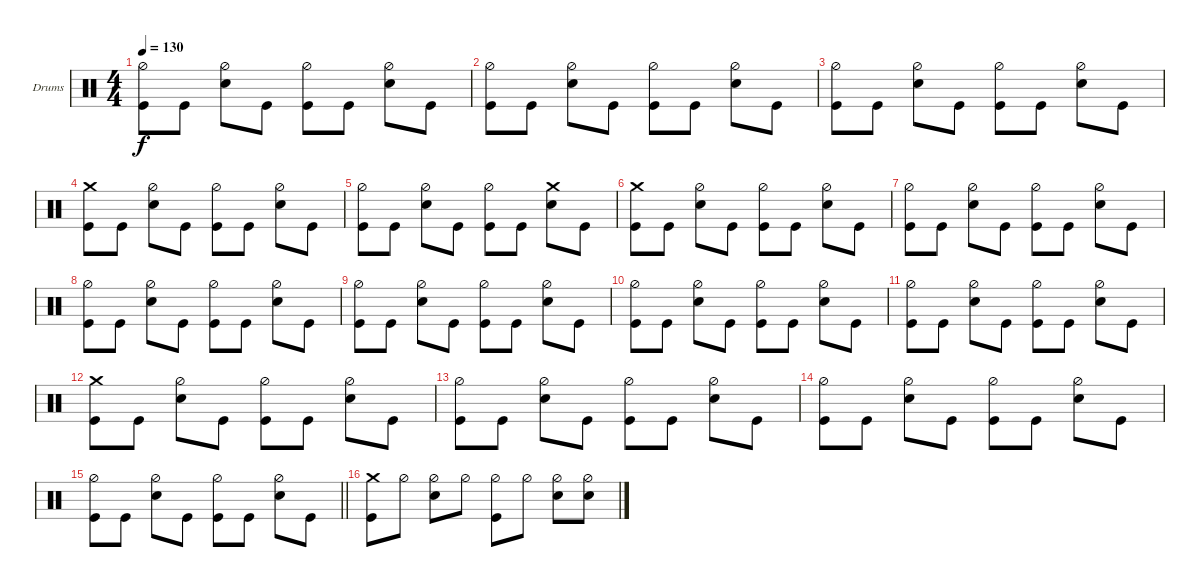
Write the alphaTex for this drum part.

\defaultSystemsLayout 4
\bracketExtendMode groupsimilarinstruments
\firstSystemTrackNameOrientation horizontal
\otherSystemsTrackNameOrientation horizontal
\track ("Drumkit" "Drums") {instrument percussion}
\staff {score}
\articulation defaults
\ts (4 4)
\tempo 130
\clef neutral
\ks aminor
("Kick (hit)" "Hi-Hat (half)").8{dy f} "Kick (hit)".8 ("Snare (hit) 2" "Hi-Hat (half)").8 "Kick (hit)".8 ("Kick (hit)" "Hi-Hat (half)").8 "Kick (hit)".8 ("Snare (hit) 2" "Hi-Hat (half)").8 "Kick (hit)".8 |
("Kick (hit)" "Hi-Hat (half)").8 "Kick (hit)".8 ("Snare (hit) 2" "Hi-Hat (half)").8 "Kick (hit)".8 ("Kick (hit)" "Hi-Hat (half)").8 "Kick (hit)".8 ("Snare (hit) 2" "Hi-Hat (half)").8 "Kick (hit)".8 |
("Kick (hit)" "Hi-Hat (half)").8 "Kick (hit)".8 ("Snare (hit) 2" "Hi-Hat (half)").8 "Kick (hit)".8 ("Kick (hit)" "Hi-Hat (half)").8 "Kick (hit)".8 ("Snare (hit) 2" "Hi-Hat (half)").8 "Kick (hit)".8 |
("Kick (hit)" "Crash medium (hit)").8 "Kick (hit)".8 ("Snare (hit) 2" "Hi-Hat (half)").8 "Kick (hit)".8 ("Kick (hit)" "Hi-Hat (half)").8 "Kick (hit)".8 ("Snare (hit) 2" "Hi-Hat (half)").8 "Kick (hit)".8 |
("Kick (hit)" "Hi-Hat (half)").8 "Kick (hit)".8 ("Snare (hit) 2" "Hi-Hat (half)").8 "Kick (hit)".8 ("Kick (hit)" "Hi-Hat (half)").8 "Kick (hit)".8 ("Snare (hit) 2" "Crash medium (hit)").8 "Kick (hit)".8 |
("Kick (hit)" "Crash medium (hit)").8 "Kick (hit)".8 ("Snare (hit) 2" "Hi-Hat (half)").8 "Kick (hit)".8 ("Kick (hit)" "Hi-Hat (half)").8 "Kick (hit)".8 ("Snare (hit) 2" "Hi-Hat (half)").8 "Kick (hit)".8 |
("Kick (hit)" "Hi-Hat (half)").8 "Kick (hit)".8 ("Snare (hit) 2" "Hi-Hat (half)").8 "Kick (hit)".8 ("Kick (hit)" "Hi-Hat (half)").8 "Kick (hit)".8 ("Snare (hit) 2" "Hi-Hat (half)").8 "Kick (hit)".8 |
("Kick (hit)" "Hi-Hat (half)").8 "Kick (hit)".8 ("Snare (hit) 2" "Hi-Hat (half)").8 "Kick (hit)".8 ("Kick (hit)" "Hi-Hat (half)").8 "Kick (hit)".8 ("Snare (hit) 2" "Hi-Hat (half)").8 "Kick (hit)".8 |
("Kick (hit)" "Hi-Hat (half)").8 "Kick (hit)".8 ("Snare (hit) 2" "Hi-Hat (half)").8 "Kick (hit)".8 ("Kick (hit)" "Hi-Hat (half)").8 "Kick (hit)".8 ("Snare (hit) 2" "Hi-Hat (half)").8 "Kick (hit)".8 |
("Kick (hit)" "Hi-Hat (half)").8 "Kick (hit)".8 ("Snare (hit) 2" "Hi-Hat (half)").8 "Kick (hit)".8 ("Kick (hit)" "Hi-Hat (half)").8 "Kick (hit)".8 ("Snare (hit) 2" "Hi-Hat (half)").8 "Kick (hit)".8 |
("Kick (hit)" "Hi-Hat (half)").8 "Kick (hit)".8 ("Snare (hit) 2" "Hi-Hat (half)").8 "Kick (hit)".8 ("Kick (hit)" "Hi-Hat (half)").8 "Kick (hit)".8 ("Snare (hit) 2" "Hi-Hat (half)").8 "Kick (hit)".8 |
("Kick (hit)" "Crash medium (hit)").8 "Kick (hit)".8 ("Snare (hit) 2" "Hi-Hat (half)").8 "Kick (hit)".8 ("Kick (hit)" "Hi-Hat (half)").8 "Kick (hit)".8 ("Snare (hit) 2" "Hi-Hat (half)").8 "Kick (hit)".8 |
("Kick (hit)" "Hi-Hat (half)").8 "Kick (hit)".8 ("Snare (hit) 2" "Hi-Hat (half)").8 "Kick (hit)".8 ("Kick (hit)" "Hi-Hat (half)").8 "Kick (hit)".8 ("Snare (hit) 2" "Hi-Hat (half)").8 "Kick (hit)".8 |
("Kick (hit)" "Hi-Hat (half)").8 "Kick (hit)".8 ("Snare (hit) 2" "Hi-Hat (half)").8 "Kick (hit)".8 ("Kick (hit)" "Hi-Hat (half)").8 "Kick (hit)".8 ("Snare (hit) 2" "Hi-Hat (half)").8 "Kick (hit)".8 |
\barLineRight lightlight
("Kick (hit)" "Hi-Hat (half)").8 "Kick (hit)".8 ("Snare (hit) 2" "Hi-Hat (half)").8 "Kick (hit)".8 ("Kick (hit)" "Hi-Hat (half)").8 "Kick (hit)".8 ("Snare (hit) 2" "Hi-Hat (half)").8 "Kick (hit)".8 |
("Kick (hit)" "Crash medium (hit)").8 "Hi-Hat (half)".8 ("Snare (hit) 2" "Hi-Hat (half)").8 "Hi-Hat (half)".8 ("Kick (hit)" "Hi-Hat (half)").8 "Hi-Hat (half)".8 ("Snare (hit) 2" "Hi-Hat (half)").8 ("Snare (hit) 2" "Hi-Hat (half)").8
